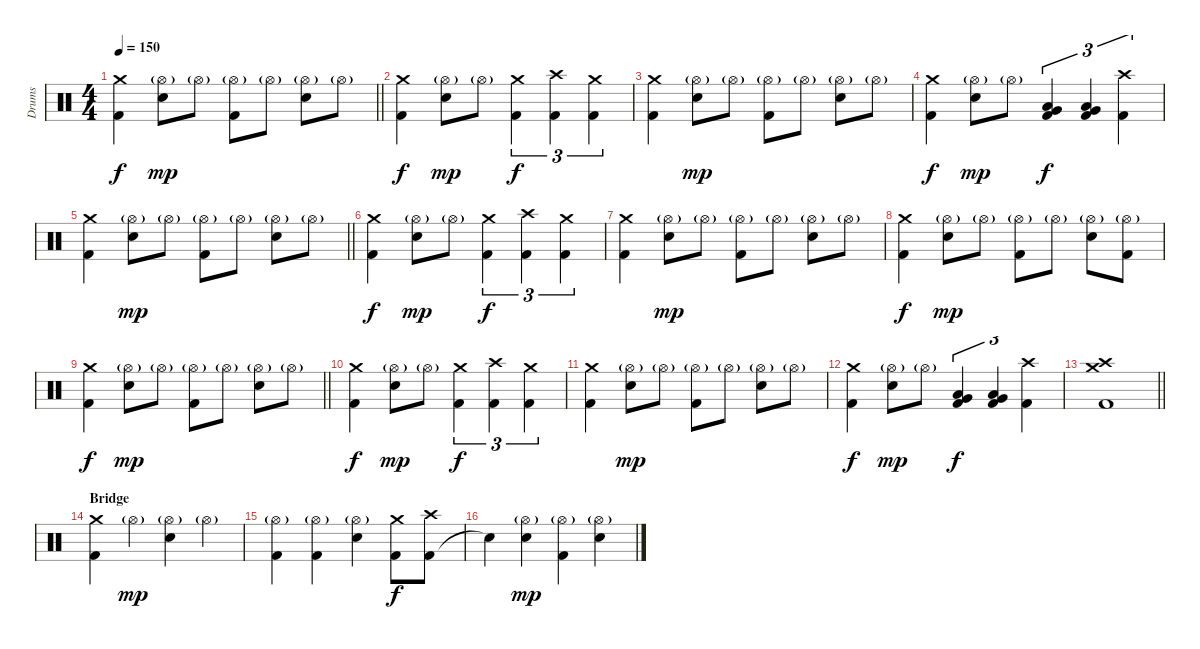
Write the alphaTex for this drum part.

\track ("Drums" "Drums") {instrument percussion}
\staff {score}
\articulation defaults
\ts (4 4)
\tempo 150
\clef neutral
\barLineRight lightlight
\ks c
("Kick (hit) 2" "Crash medium (hit)").4{dy f} ("Snare (hit) 2" "Hi-Hat (open)"{g}).8{dy mp} "Hi-Hat (open)"{g}.8 ("Kick (hit) 2" "Hi-Hat (open)"{g}).8 "Hi-Hat (open)"{g}.8 ("Snare (hit) 2" "Hi-Hat (open)"{g}).8 "Hi-Hat (open)"{g}.8 |
\section ("" "")
("Kick (hit) 2" "Crash medium (hit)").4{dy f} ("Snare (hit) 2" "Hi-Hat (open)"{g}).8{dy mp} "Hi-Hat (open)"{g}.8 ("Kick (hit) 2" "Crash medium (hit)").4{tu (3 2) dy f} ("Kick (hit) 2" "Crash high (hit)").4{tu (3 2)} ("Kick (hit) 2" "Crash medium (hit)").4{tu (3 2)} |
("Kick (hit) 2" "Crash medium (hit)").4 ("Snare (hit) 2" "Hi-Hat (open)"{g}).8{dy mp} "Hi-Hat (open)"{g}.8 ("Kick (hit) 2" "Hi-Hat (open)"{g}).8 "Hi-Hat (open)"{g}.8 ("Snare (hit) 2" "Hi-Hat (open)"{g}).8 "Hi-Hat (open)"{g}.8 |
("Kick (hit) 2" "Crash medium (hit)").4{dy f} ("Snare (hit) 2" "Hi-Hat (open)"{g}).8{dy mp} "Hi-Hat (open)"{g}.8 ("Kick (hit) 2" "Low Tom (hit)" "Very Low Tom (hit)").4{tu (3 2) dy f} ("Kick (hit) 2" "Very Low Tom (hit)" "Low Floor Tom (hit)").4{tu (3 2)} ("Kick (hit) 2" "Crash high (hit)").4{tu (3 2)} |
\barLineRight lightlight
("Kick (hit) 2" "Crash medium (hit)").4 ("Snare (hit) 2" "Hi-Hat (open)"{g}).8{dy mp} "Hi-Hat (open)"{g}.8 ("Kick (hit) 2" "Hi-Hat (open)"{g}).8 "Hi-Hat (open)"{g}.8 ("Snare (hit) 2" "Hi-Hat (open)"{g}).8 "Hi-Hat (open)"{g}.8 |
\section ("" "")
("Kick (hit) 2" "Crash medium (hit)").4{dy f} ("Snare (hit) 2" "Hi-Hat (open)"{g}).8{dy mp} "Hi-Hat (open)"{g}.8 ("Kick (hit) 2" "Crash medium (hit)").4{tu (3 2) dy f} ("Kick (hit) 2" "Crash high (hit)").4{tu (3 2)} ("Kick (hit) 2" "Crash medium (hit)").4{tu (3 2)} |
("Kick (hit) 2" "Crash medium (hit)").4 ("Snare (hit) 2" "Hi-Hat (open)"{g}).8{dy mp} "Hi-Hat (open)"{g}.8 ("Kick (hit) 2" "Hi-Hat (open)"{g}).8 "Hi-Hat (open)"{g}.8 ("Snare (hit) 2" "Hi-Hat (open)"{g}).8 "Hi-Hat (open)"{g}.8 |
("Kick (hit) 2" "Crash medium (hit)").4{dy f} ("Snare (hit) 2" "Hi-Hat (open)"{g}).8{dy mp} "Hi-Hat (open)"{g}.8 ("Kick (hit) 2" "Hi-Hat (open)"{g}).8 "Hi-Hat (open)"{g}.8 ("Snare (hit) 2" "Hi-Hat (open)"{g}).8 ("Kick (hit) 2" "Hi-Hat (open)"{g}).8 |
\barLineRight lightlight
("Kick (hit) 2" "Crash medium (hit)").4{dy f} ("Snare (hit) 2" "Hi-Hat (open)"{g}).8{dy mp} "Hi-Hat (open)"{g}.8 ("Kick (hit) 2" "Hi-Hat (open)"{g}).8 "Hi-Hat (open)"{g}.8 ("Snare (hit) 2" "Hi-Hat (open)"{g}).8 "Hi-Hat (open)"{g}.8 |
\section ("" "")
("Kick (hit) 2" "Crash medium (hit)").4{dy f} ("Snare (hit) 2" "Hi-Hat (open)"{g}).8{dy mp} "Hi-Hat (open)"{g}.8 ("Kick (hit) 2" "Crash medium (hit)").4{tu (3 2) dy f} ("Kick (hit) 2" "Crash high (hit)").4{tu (3 2)} ("Kick (hit) 2" "Crash medium (hit)").4{tu (3 2)} |
("Kick (hit) 2" "Crash medium (hit)").4 ("Snare (hit) 2" "Hi-Hat (open)"{g}).8{dy mp} "Hi-Hat (open)"{g}.8 ("Kick (hit) 2" "Hi-Hat (open)"{g}).8 "Hi-Hat (open)"{g}.8 ("Snare (hit) 2" "Hi-Hat (open)"{g}).8 "Hi-Hat (open)"{g}.8 |
("Kick (hit) 2" "Crash medium (hit)").4{dy f} ("Snare (hit) 2" "Hi-Hat (open)"{g}).8{dy mp} "Hi-Hat (open)"{g}.8 ("Kick (hit) 2" "Low Tom (hit)" "Very Low Tom (hit)").4{tu (3 2) dy f} ("Kick (hit) 2" "Very Low Tom (hit)" "Low Floor Tom (hit)").4{tu (3 2)} ("Kick (hit) 2" "Crash high (hit)").4{tu (3 2)} |
\barLineRight lightlight
("Kick (hit) 2" "Crash high (hit)" "Crash medium (hit)").1 |
\section ("" "Bridge")
("Kick (hit) 2" "Crash medium (hit)").4 "Hi-Hat (open)"{g}.4{dy mp} ("Snare (hit) 2" "Hi-Hat (open)"{g}).4 "Hi-Hat (open)"{g}.4 |
("Kick (hit) 2" "Hi-Hat (open)"{g}).4 ("Kick (hit) 2" "Hi-Hat (open)"{g}).4 ("Snare (hit) 2" "Hi-Hat (open)"{g}).4 ("Kick (hit) 2" "Crash medium (hit)").8{dy f} ("Kick (hit) 2" "Crash high (hit)").8 |
"Snare (hit)"{t}.4 ("Snare (hit) 2" "Hi-Hat (open)"{g}).4{dy mp} ("Kick (hit) 2" "Hi-Hat (open)"{g}).4 ("Snare (hit) 2" "Hi-Hat (open)"{g}).4
